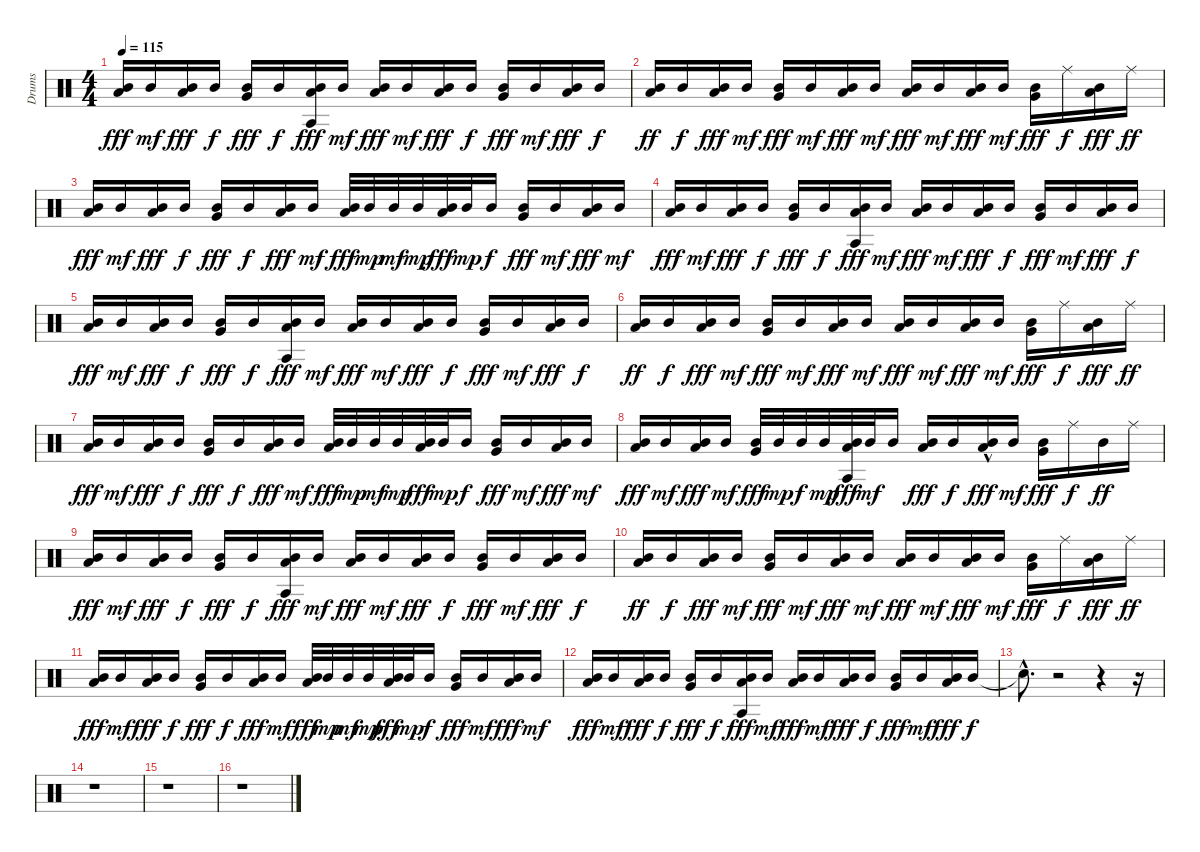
\track ("Drums" "Drums") {instrument percussion}
\staff {score}
\articulation defaults
\ts (4 4)
\tempo 115
\clef neutral
\ks c
("Mid Tom (hit)" "Low Floor Tom (hit)").16{dy fff} "Mid Tom (hit)".16{dy mf} ("Mid Tom (hit)" "Low Floor Tom (hit)").16{dy fff} "Mid Tom (hit)".16{dy f} ("Mid Tom (hit)" "Very Low Tom (hit)").16{dy fff} "Mid Tom (hit)".16{dy f} ("Mid Tom (hit)" "Agogo tow (hit)" "Low Floor Tom (hit)").16{dy fff} "Mid Tom (hit)".16{dy mf} ("Mid Tom (hit)" "Low Floor Tom (hit)").16{dy fff} "Mid Tom (hit)".16{dy mf} ("Mid Tom (hit)" "Low Floor Tom (hit)").16{dy fff} "Mid Tom (hit)".16{dy f} ("Mid Tom (hit)" "Very Low Tom (hit)").16{dy fff} "Mid Tom (hit)".16{dy mf} ("Mid Tom (hit)" "Low Floor Tom (hit)").16{dy fff} "Mid Tom (hit)".16{dy f} |
("Mid Tom (hit)" "Low Floor Tom (hit)").16{dy ff} "Mid Tom (hit)".16{dy f} ("Mid Tom (hit)" "Low Floor Tom (hit)").16{dy fff} "Mid Tom (hit)".16{dy mf} ("Mid Tom (hit)" "Very Low Tom (hit)").16{dy fff} "Mid Tom (hit)".16{dy mf} ("Mid Tom (hit)" "Low Floor Tom (hit)").16{dy fff} "Mid Tom (hit)".16{dy mf} ("Mid Tom (hit)" "Low Floor Tom (hit)").16{dy fff} "Mid Tom (hit)".16{dy mf} ("Mid Tom (hit)" "Low Floor Tom (hit)").16{dy fff} "Mid Tom (hit)".16{dy mf} ("Mid Tom (hit)" "Very Low Tom (hit)").16{dy fff} "Ride (middle)".16{dy f} ("Mid Tom (hit)" "Low Floor Tom (hit)").16{dy fff} "Ride (middle)".16{dy ff} |
("Mid Tom (hit)" "Low Floor Tom (hit)").16{dy fff} "Mid Tom (hit)".16{dy mf} ("Mid Tom (hit)" "Low Floor Tom (hit)").16{dy fff} "Mid Tom (hit)".16{dy f} ("Mid Tom (hit)" "Very Low Tom (hit)").16{dy fff} "Mid Tom (hit)".16{dy f} ("Mid Tom (hit)" "Low Floor Tom (hit)").16{dy fff} "Mid Tom (hit)".16{dy mf} ("Mid Tom (hit)" "Low Floor Tom (hit)").32{dy fff} "Mid Tom (hit)".32{dy mp} "Mid Tom (hit)".32{dy mf} "Mid Tom (hit)".32{dy mp} ("Mid Tom (hit)" "Low Floor Tom (hit)").32{dy fff} "Mid Tom (hit)".32{dy mp} "Mid Tom (hit)".16{dy f} ("Mid Tom (hit)" "Very Low Tom (hit)").16{dy fff} "Mid Tom (hit)".16{dy mf} ("Mid Tom (hit)" "Low Floor Tom (hit)").16{dy fff} "Mid Tom (hit)".16{dy mf} |
("Mid Tom (hit)" "Low Floor Tom (hit)").16{dy fff} "Mid Tom (hit)".16{dy mf} ("Mid Tom (hit)" "Low Floor Tom (hit)").16{dy fff} "Mid Tom (hit)".16{dy f} ("Mid Tom (hit)" "Very Low Tom (hit)").16{dy fff} "Mid Tom (hit)".16{dy f} ("Mid Tom (hit)" "Agogo tow (hit)" "Low Floor Tom (hit)").16{dy fff} "Mid Tom (hit)".16{dy mf} ("Mid Tom (hit)" "Low Floor Tom (hit)").16{dy fff} "Mid Tom (hit)".16{dy mf} ("Mid Tom (hit)" "Low Floor Tom (hit)").16{dy fff} "Mid Tom (hit)".16{dy f} ("Mid Tom (hit)" "Very Low Tom (hit)").16{dy fff} "Mid Tom (hit)".16{dy mf} ("Mid Tom (hit)" "Low Floor Tom (hit)").16{dy fff} "Mid Tom (hit)".16{dy f} |
("Mid Tom (hit)" "Low Floor Tom (hit)").16{dy fff} "Mid Tom (hit)".16{dy mf} ("Mid Tom (hit)" "Low Floor Tom (hit)").16{dy fff} "Mid Tom (hit)".16{dy f} ("Mid Tom (hit)" "Very Low Tom (hit)").16{dy fff} "Mid Tom (hit)".16{dy f} ("Mid Tom (hit)" "Agogo tow (hit)" "Low Floor Tom (hit)").16{dy fff} "Mid Tom (hit)".16{dy mf} ("Mid Tom (hit)" "Low Floor Tom (hit)").16{dy fff} "Mid Tom (hit)".16{dy mf} ("Mid Tom (hit)" "Low Floor Tom (hit)").16{dy fff} "Mid Tom (hit)".16{dy f} ("Mid Tom (hit)" "Very Low Tom (hit)").16{dy fff} "Mid Tom (hit)".16{dy mf} ("Mid Tom (hit)" "Low Floor Tom (hit)").16{dy fff} "Mid Tom (hit)".16{dy f} |
("Mid Tom (hit)" "Low Floor Tom (hit)").16{dy ff} "Mid Tom (hit)".16{dy f} ("Mid Tom (hit)" "Low Floor Tom (hit)").16{dy fff} "Mid Tom (hit)".16{dy mf} ("Mid Tom (hit)" "Very Low Tom (hit)").16{dy fff} "Mid Tom (hit)".16{dy mf} ("Mid Tom (hit)" "Low Floor Tom (hit)").16{dy fff} "Mid Tom (hit)".16{dy mf} ("Mid Tom (hit)" "Low Floor Tom (hit)").16{dy fff} "Mid Tom (hit)".16{dy mf} ("Mid Tom (hit)" "Low Floor Tom (hit)").16{dy fff} "Mid Tom (hit)".16{dy mf} ("Mid Tom (hit)" "Very Low Tom (hit)").16{dy fff} "Ride (middle)".16{dy f} ("Mid Tom (hit)" "Low Floor Tom (hit)").16{dy fff} "Ride (middle)".16{dy ff} |
("Mid Tom (hit)" "Low Floor Tom (hit)").16{dy fff} "Mid Tom (hit)".16{dy mf} ("Mid Tom (hit)" "Low Floor Tom (hit)").16{dy fff} "Mid Tom (hit)".16{dy f} ("Mid Tom (hit)" "Very Low Tom (hit)").16{dy fff} "Mid Tom (hit)".16{dy f} ("Mid Tom (hit)" "Low Floor Tom (hit)").16{dy fff} "Mid Tom (hit)".16{dy mf} ("Mid Tom (hit)" "Low Floor Tom (hit)").32{dy fff} "Mid Tom (hit)".32{dy mp} "Mid Tom (hit)".32{dy mf} "Mid Tom (hit)".32{dy mp} ("Mid Tom (hit)" "Low Floor Tom (hit)").32{dy fff} "Mid Tom (hit)".32{dy mp} "Mid Tom (hit)".16{dy f} ("Mid Tom (hit)" "Very Low Tom (hit)").16{dy fff} "Mid Tom (hit)".16{dy mf} ("Mid Tom (hit)" "Low Floor Tom (hit)").16{dy fff} "Mid Tom (hit)".16{dy mf} |
("Mid Tom (hit)" "Low Floor Tom (hit)").16{dy fff} "Mid Tom (hit)".16{dy mf} ("Mid Tom (hit)" "Low Floor Tom (hit)").16{dy fff} "Mid Tom (hit)".16{dy mf} ("Mid Tom (hit)" "Very Low Tom (hit)").32{dy fff} "Mid Tom (hit)".32{dy mp} "Mid Tom (hit)".32{dy f} "Mid Tom (hit)".32{dy mp} ("Mid Tom (hit)" "Agogo tow (hit)" "Low Floor Tom (hit)").32{dy fff} "Mid Tom (hit)".32{dy mf} "Mid Tom (hit)".16 ("Mid Tom (hit)" "Low Floor Tom (hit)").16{dy fff} "Mid Tom (hit)".16{dy f} ("Mid Tom (hit)" "Low Floor Tom (hit)"{hac}).16{dy fff} "Mid Tom (hit)".16{dy mf} ("Mid Tom (hit)" "Very Low Tom (hit)").16{dy fff} "Ride (middle)".16{dy f} "Mid Tom (hit)".16{dy ff} "Ride (middle)".16 |
("Mid Tom (hit)" "Low Floor Tom (hit)").16{dy fff} "Mid Tom (hit)".16{dy mf} ("Mid Tom (hit)" "Low Floor Tom (hit)").16{dy fff} "Mid Tom (hit)".16{dy f} ("Mid Tom (hit)" "Very Low Tom (hit)").16{dy fff} "Mid Tom (hit)".16{dy f} ("Mid Tom (hit)" "Agogo tow (hit)" "Low Floor Tom (hit)").16{dy fff} "Mid Tom (hit)".16{dy mf} ("Mid Tom (hit)" "Low Floor Tom (hit)").16{dy fff} "Mid Tom (hit)".16{dy mf} ("Mid Tom (hit)" "Low Floor Tom (hit)").16{dy fff} "Mid Tom (hit)".16{dy f} ("Mid Tom (hit)" "Very Low Tom (hit)").16{dy fff} "Mid Tom (hit)".16{dy mf} ("Mid Tom (hit)" "Low Floor Tom (hit)").16{dy fff} "Mid Tom (hit)".16{dy f} |
("Mid Tom (hit)" "Low Floor Tom (hit)").16{dy ff} "Mid Tom (hit)".16{dy f} ("Mid Tom (hit)" "Low Floor Tom (hit)").16{dy fff} "Mid Tom (hit)".16{dy mf} ("Mid Tom (hit)" "Very Low Tom (hit)").16{dy fff} "Mid Tom (hit)".16{dy mf} ("Mid Tom (hit)" "Low Floor Tom (hit)").16{dy fff} "Mid Tom (hit)".16{dy mf} ("Mid Tom (hit)" "Low Floor Tom (hit)").16{dy fff} "Mid Tom (hit)".16{dy mf} ("Mid Tom (hit)" "Low Floor Tom (hit)").16{dy fff} "Mid Tom (hit)".16{dy mf} ("Mid Tom (hit)" "Very Low Tom (hit)").16{dy fff} "Ride (middle)".16{dy f} ("Mid Tom (hit)" "Low Floor Tom (hit)").16{dy fff} "Ride (middle)".16{dy ff} |
("Mid Tom (hit)" "Low Floor Tom (hit)").16{dy fff} "Mid Tom (hit)".16{dy mf} ("Mid Tom (hit)" "Low Floor Tom (hit)").16{dy fff} "Mid Tom (hit)".16{dy f} ("Mid Tom (hit)" "Very Low Tom (hit)").16{dy fff} "Mid Tom (hit)".16{dy f} ("Mid Tom (hit)" "Low Floor Tom (hit)").16{dy fff} "Mid Tom (hit)".16{dy mf} ("Mid Tom (hit)" "Low Floor Tom (hit)").32{dy fff} "Mid Tom (hit)".32{dy mp} "Mid Tom (hit)".32{dy mf} "Mid Tom (hit)".32{dy mp} ("Mid Tom (hit)" "Low Floor Tom (hit)").32{dy fff} "Mid Tom (hit)".32{dy mp} "Mid Tom (hit)".16{dy f} ("Mid Tom (hit)" "Very Low Tom (hit)").16{dy fff} "Mid Tom (hit)".16{dy mf} ("Mid Tom (hit)" "Low Floor Tom (hit)").16{dy fff} "Mid Tom (hit)".16{dy mf} |
("Mid Tom (hit)" "Low Floor Tom (hit)").16{dy fff} "Mid Tom (hit)".16{dy mf} ("Mid Tom (hit)" "Low Floor Tom (hit)").16{dy fff} "Mid Tom (hit)".16{dy f} ("Mid Tom (hit)" "Very Low Tom (hit)").16{dy fff} "Mid Tom (hit)".16{dy f} ("Mid Tom (hit)" "Agogo tow (hit)" "Low Floor Tom (hit)").16{dy fff} "Mid Tom (hit)".16{dy mf} ("Mid Tom (hit)" "Low Floor Tom (hit)").16{dy fff} "Mid Tom (hit)".16{dy mf} ("Mid Tom (hit)" "Low Floor Tom (hit)").16{dy fff} "Mid Tom (hit)".16{dy f} ("Mid Tom (hit)" "Very Low Tom (hit)").16{dy fff} "Mid Tom (hit)".16{dy mf} ("Mid Tom (hit)" "Low Floor Tom (hit)").16{dy fff} "Mid Tom (hit)".16{dy f} |
"Snare (hit)"{hac t}.8{d} r.2 r.4 r.16 |
r.1 |
r.1 |
r.1
